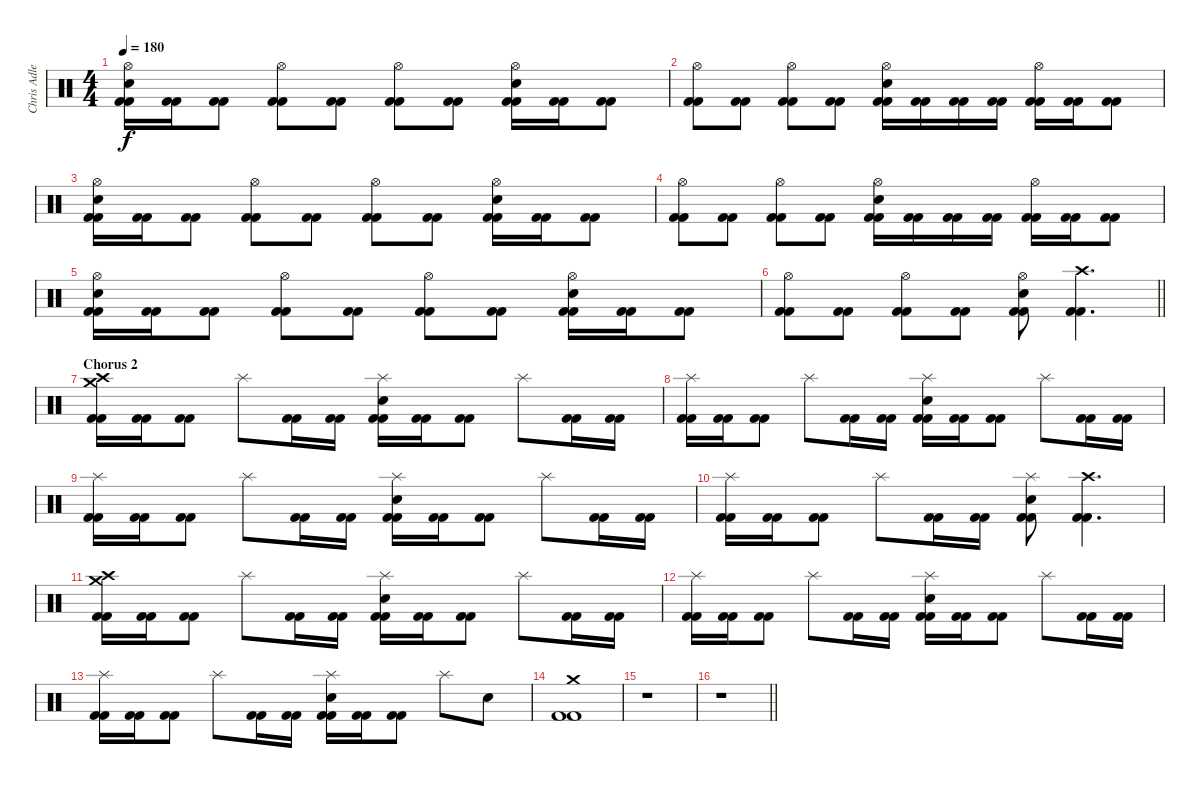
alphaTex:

\track ("Chris Adler" "Chris Adle") {instrument percussion}
\staff {score}
\articulation defaults
\ts (4 4)
\tempo 180
\clef neutral
\ks c
("Hi-Hat (open)" "Electric Snare (hit)" "Kick (hit) 2" "Kick (hit) 2").16{dy f} ("Kick (hit) 2" "Kick (hit) 2").16 ("Kick (hit) 2" "Kick (hit) 2").8 ("Hi-Hat (open)" "Kick (hit) 2" "Kick (hit) 2").8 ("Kick (hit) 2" "Kick (hit) 2").8 ("Hi-Hat (open)" "Kick (hit) 2" "Kick (hit) 2").8 ("Kick (hit) 2" "Kick (hit) 2").8 ("Hi-Hat (open)" "Electric Snare (hit)" "Kick (hit) 2" "Kick (hit) 2").16 ("Kick (hit) 2" "Kick (hit) 2").16 ("Kick (hit) 2" "Kick (hit) 2").8 |
("Hi-Hat (open)" "Kick (hit) 2" "Kick (hit) 2").8 ("Kick (hit) 2" "Kick (hit) 2").8 ("Hi-Hat (open)" "Kick (hit) 2" "Kick (hit) 2").8 ("Kick (hit) 2" "Kick (hit) 2").8 ("Hi-Hat (open)" "Electric Snare (hit)" "Kick (hit) 2" "Kick (hit) 2").16 ("Kick (hit) 2" "Kick (hit) 2").16 ("Kick (hit) 2" "Kick (hit) 2").16 ("Kick (hit) 2" "Kick (hit) 2").16 ("Hi-Hat (open)" "Kick (hit) 2" "Kick (hit) 2").16 ("Kick (hit) 2" "Kick (hit) 2").16 ("Kick (hit) 2" "Kick (hit) 2").8 |
("Hi-Hat (open)" "Electric Snare (hit)" "Kick (hit) 2" "Kick (hit) 2").16 ("Kick (hit) 2" "Kick (hit) 2").16 ("Kick (hit) 2" "Kick (hit) 2").8 ("Hi-Hat (open)" "Kick (hit) 2" "Kick (hit) 2").8 ("Kick (hit) 2" "Kick (hit) 2").8 ("Hi-Hat (open)" "Kick (hit) 2" "Kick (hit) 2").8 ("Kick (hit) 2" "Kick (hit) 2").8 ("Hi-Hat (open)" "Electric Snare (hit)" "Kick (hit) 2" "Kick (hit) 2").16 ("Kick (hit) 2" "Kick (hit) 2").16 ("Kick (hit) 2" "Kick (hit) 2").8 |
("Hi-Hat (open)" "Kick (hit) 2" "Kick (hit) 2").8 ("Kick (hit) 2" "Kick (hit) 2").8 ("Hi-Hat (open)" "Kick (hit) 2" "Kick (hit) 2").8 ("Kick (hit) 2" "Kick (hit) 2").8 ("Hi-Hat (open)" "Electric Snare (hit)" "Kick (hit) 2" "Kick (hit) 2").16 ("Kick (hit) 2" "Kick (hit) 2").16 ("Kick (hit) 2" "Kick (hit) 2").16 ("Kick (hit) 2" "Kick (hit) 2").16 ("Hi-Hat (open)" "Kick (hit) 2" "Kick (hit) 2").16 ("Kick (hit) 2" "Kick (hit) 2").16 ("Kick (hit) 2" "Kick (hit) 2").8 |
("Hi-Hat (open)" "Electric Snare (hit)" "Kick (hit) 2" "Kick (hit) 2").16 ("Kick (hit) 2" "Kick (hit) 2").16 ("Kick (hit) 2" "Kick (hit) 2").8 ("Hi-Hat (open)" "Kick (hit) 2" "Kick (hit) 2").8 ("Kick (hit) 2" "Kick (hit) 2").8 ("Hi-Hat (open)" "Kick (hit) 2" "Kick (hit) 2").8 ("Kick (hit) 2" "Kick (hit) 2").8 ("Hi-Hat (open)" "Electric Snare (hit)" "Kick (hit) 2" "Kick (hit) 2").16 ("Kick (hit) 2" "Kick (hit) 2").16 ("Kick (hit) 2" "Kick (hit) 2").8 |
\barLineRight lightlight
("Hi-Hat (open)" "Kick (hit) 2" "Kick (hit) 2").8 ("Kick (hit) 2" "Kick (hit) 2").8 ("Hi-Hat (open)" "Kick (hit) 2" "Kick (hit) 2").8 ("Kick (hit) 2" "Kick (hit) 2").8 ("Hi-Hat (open)" "Electric Snare (hit)" "Kick (hit) 2" "Kick (hit) 2").8 ("Crash high (hit)" "Kick (hit) 2" "Kick (hit) 2").4{d} |
\section ("" "Chorus 2")
("Crash medium (hit)" "Crash high (hit)" "Kick (hit) 2" "Kick (hit) 2").16 ("Kick (hit) 2" "Kick (hit) 2").16 ("Kick (hit) 2" "Kick (hit) 2").8 "Splash (hit)".8 ("Kick (hit) 2" "Kick (hit) 2").16 ("Kick (hit) 2" "Kick (hit) 2").16 ("Splash (hit)" "Electric Snare (hit)" "Kick (hit) 2" "Kick (hit) 2").16 ("Kick (hit) 2" "Kick (hit) 2").16 ("Kick (hit) 2" "Kick (hit) 2").8 "Splash (hit)".8 ("Kick (hit) 2" "Kick (hit) 2").16 ("Kick (hit) 2" "Kick (hit) 2").16 |
("Splash (hit)" "Kick (hit) 2" "Kick (hit) 2").16 ("Kick (hit) 2" "Kick (hit) 2").16 ("Kick (hit) 2" "Kick (hit) 2").8 "Splash (hit)".8 ("Kick (hit) 2" "Kick (hit) 2").16 ("Kick (hit) 2" "Kick (hit) 2").16 ("Splash (hit)" "Electric Snare (hit)" "Kick (hit) 2" "Kick (hit) 2").16 ("Kick (hit) 2" "Kick (hit) 2").16 ("Kick (hit) 2" "Kick (hit) 2").8 "Splash (hit)".8 ("Kick (hit) 2" "Kick (hit) 2").16 ("Kick (hit) 2" "Kick (hit) 2").16 |
("Splash (hit)" "Kick (hit) 2" "Kick (hit) 2").16 ("Kick (hit) 2" "Kick (hit) 2").16 ("Kick (hit) 2" "Kick (hit) 2").8 "Splash (hit)".8 ("Kick (hit) 2" "Kick (hit) 2").16 ("Kick (hit) 2" "Kick (hit) 2").16 ("Splash (hit)" "Electric Snare (hit)" "Kick (hit) 2" "Kick (hit) 2").16 ("Kick (hit) 2" "Kick (hit) 2").16 ("Kick (hit) 2" "Kick (hit) 2").8 "Splash (hit)".8 ("Kick (hit) 2" "Kick (hit) 2").16 ("Kick (hit) 2" "Kick (hit) 2").16 |
("Splash (hit)" "Kick (hit) 2" "Kick (hit) 2").16 ("Kick (hit) 2" "Kick (hit) 2").16 ("Kick (hit) 2" "Kick (hit) 2").8 "Splash (hit)".8 ("Kick (hit) 2" "Kick (hit) 2").16 ("Kick (hit) 2" "Kick (hit) 2").16 ("Splash (hit)" "Electric Snare (hit)" "Kick (hit) 2" "Kick (hit) 2").8 ("Crash high (hit)" "Kick (hit) 2" "Kick (hit) 2").4{d} |
("Crash medium (hit)" "Crash high (hit)" "Kick (hit) 2" "Kick (hit) 2").16 ("Kick (hit) 2" "Kick (hit) 2").16 ("Kick (hit) 2" "Kick (hit) 2").8 "Splash (hit)".8 ("Kick (hit) 2" "Kick (hit) 2").16 ("Kick (hit) 2" "Kick (hit) 2").16 ("Splash (hit)" "Electric Snare (hit)" "Kick (hit) 2" "Kick (hit) 2").16 ("Kick (hit) 2" "Kick (hit) 2").16 ("Kick (hit) 2" "Kick (hit) 2").8 "Splash (hit)".8 ("Kick (hit) 2" "Kick (hit) 2").16 ("Kick (hit) 2" "Kick (hit) 2").16 |
("Splash (hit)" "Kick (hit) 2" "Kick (hit) 2").16 ("Kick (hit) 2" "Kick (hit) 2").16 ("Kick (hit) 2" "Kick (hit) 2").8 "Splash (hit)".8 ("Kick (hit) 2" "Kick (hit) 2").16 ("Kick (hit) 2" "Kick (hit) 2").16 ("Splash (hit)" "Electric Snare (hit)" "Kick (hit) 2" "Kick (hit) 2").16 ("Kick (hit) 2" "Kick (hit) 2").16 ("Kick (hit) 2" "Kick (hit) 2").8 "Splash (hit)".8 ("Kick (hit) 2" "Kick (hit) 2").16 ("Kick (hit) 2" "Kick (hit) 2").16 |
("Splash (hit)" "Kick (hit) 2" "Kick (hit) 2").16 ("Kick (hit) 2" "Kick (hit) 2").16 ("Kick (hit) 2" "Kick (hit) 2").8 "Splash (hit)".8 ("Kick (hit) 2" "Kick (hit) 2").16 ("Kick (hit) 2" "Kick (hit) 2").16 ("Splash (hit)" "Electric Snare (hit)" "Kick (hit) 2" "Kick (hit) 2").16 ("Kick (hit) 2" "Kick (hit) 2").16 ("Kick (hit) 2" "Kick (hit) 2").8 "Splash (hit)".8 "Electric Snare (hit)".8 |
("Crash medium (hit)" "Kick (hit) 2" "Kick (hit) 2").1 |
r.1 |
\barLineRight lightlight
r.1
